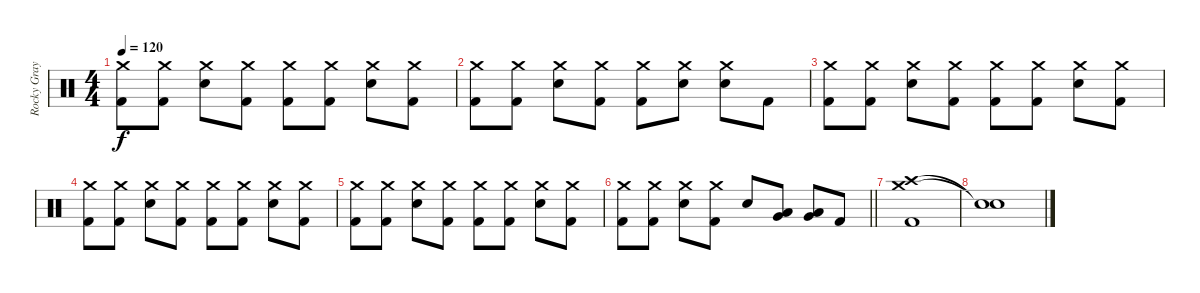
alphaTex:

\track ("Rocky Gray" "Rocky Gray") {instrument percussion}
\staff {score}
\articulation defaults
\ts (4 4)
\tempo 120
\clef neutral
\ks c
("Crash medium (hit)" "Kick (hit) 2").8{dy f} ("Crash medium (hit)" "Kick (hit) 2").8 ("Crash medium (hit)" "Electric Snare (hit)").8 ("Crash medium (hit)" "Kick (hit) 2").8 ("Crash medium (hit)" "Kick (hit) 2").8 ("Crash medium (hit)" "Kick (hit) 2").8 ("Crash medium (hit)" "Electric Snare (hit)").8 ("Crash medium (hit)" "Kick (hit) 2").8 |
("Crash medium (hit)" "Kick (hit) 2").8 ("Crash medium (hit)" "Kick (hit) 2").8 ("Crash medium (hit)" "Electric Snare (hit)").8 ("Crash medium (hit)" "Kick (hit) 2").8 ("Crash medium (hit)" "Kick (hit) 2").8 ("Crash medium (hit)" "Electric Snare (hit)").8 ("Crash medium (hit)" "Electric Snare (hit)").8 "Kick (hit) 2".8 |
("Crash medium (hit)" "Kick (hit) 2").8 ("Crash medium (hit)" "Kick (hit) 2").8 ("Crash medium (hit)" "Electric Snare (hit)").8 ("Crash medium (hit)" "Kick (hit) 2").8 ("Crash medium (hit)" "Kick (hit) 2").8 ("Crash medium (hit)" "Kick (hit) 2").8 ("Crash medium (hit)" "Electric Snare (hit)").8 ("Crash medium (hit)" "Kick (hit) 2").8 |
("Crash medium (hit)" "Kick (hit) 2").8 ("Crash medium (hit)" "Kick (hit) 2").8 ("Crash medium (hit)" "Electric Snare (hit)").8 ("Crash medium (hit)" "Kick (hit) 2").8 ("Crash medium (hit)" "Kick (hit) 2").8 ("Crash medium (hit)" "Kick (hit) 2").8 ("Crash medium (hit)" "Electric Snare (hit)").8 ("Crash medium (hit)" "Kick (hit) 2").8 |
("Crash medium (hit)" "Kick (hit) 2").8 ("Crash medium (hit)" "Kick (hit) 2").8 ("Crash medium (hit)" "Electric Snare (hit)").8 ("Crash medium (hit)" "Kick (hit) 2").8 ("Crash medium (hit)" "Kick (hit) 2").8 ("Crash medium (hit)" "Kick (hit) 2").8 ("Crash medium (hit)" "Electric Snare (hit)").8 ("Crash medium (hit)" "Kick (hit) 2").8 |
\barLineRight lightlight
("Crash medium (hit)" "Kick (hit) 2").8 ("Crash medium (hit)" "Kick (hit) 2").8 ("Crash medium (hit)" "Electric Snare (hit)").8 ("Crash medium (hit)" "Kick (hit) 2").8 "Electric Snare (hit)".8 ("Low Tom (hit)" "Very Low Tom (hit)").8 ("Very Low Tom (hit)" "Low Floor Tom (hit)").8 "Kick (hit) 2".8 |
("Crash high (hit)" "Crash medium (hit)" "Kick (hit) 2").1 |
("Snare (hit)"{t} "Snare (hit)"{t}).1
